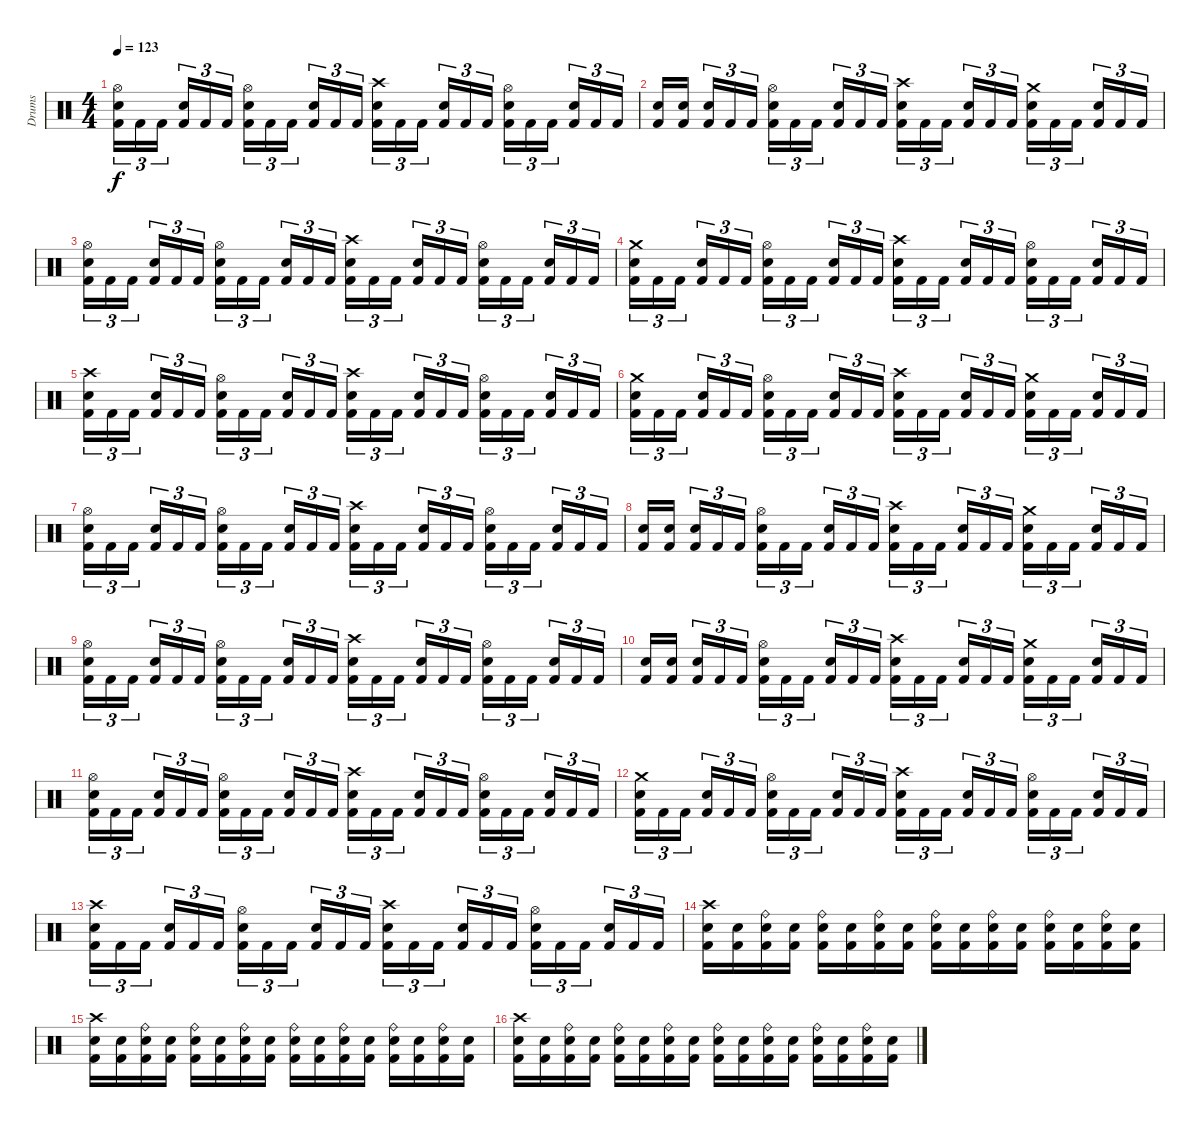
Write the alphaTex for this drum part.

\track ("Drums" "Drums") {instrument percussion}
\staff {score}
\articulation defaults
\ts (4 4)
\tempo 123
\clef neutral
\ks c
("Hi-Hat (open)" "Snare (hit) 2" "Kick (hit) 2").16{tu (3 2) dy f} "Kick (hit) 2".16{tu (3 2)} "Kick (hit) 2".16{tu (3 2) beam splitsecondary} ("Snare (hit) 2" "Kick (hit) 2").16{tu (3 2)} "Kick (hit) 2".16{tu (3 2)} "Kick (hit) 2".16{tu (3 2)} ("Hi-Hat (open)" "Snare (hit) 2" "Kick (hit) 2").16{tu (3 2)} "Kick (hit) 2".16{tu (3 2)} "Kick (hit) 2".16{tu (3 2) beam splitsecondary} ("Snare (hit) 2" "Kick (hit) 2").16{tu (3 2)} "Kick (hit) 2".16{tu (3 2)} "Kick (hit) 2".16{tu (3 2)} ("Crash high (hit)" "Snare (hit) 2" "Kick (hit) 2").16{tu (3 2)} "Kick (hit) 2".16{tu (3 2)} "Kick (hit) 2".16{tu (3 2) beam splitsecondary} ("Snare (hit) 2" "Kick (hit) 2").16{tu (3 2)} "Kick (hit) 2".16{tu (3 2)} "Kick (hit) 2".16{tu (3 2)} ("Hi-Hat (open)" "Snare (hit) 2" "Kick (hit) 2").16{tu (3 2)} "Kick (hit) 2".16{tu (3 2)} "Kick (hit) 2".16{tu (3 2) beam splitsecondary} ("Snare (hit) 2" "Kick (hit) 2").16{tu (3 2)} "Kick (hit) 2".16{tu (3 2)} "Kick (hit) 2".16{tu (3 2)} |
("Snare (hit) 2" "Kick (hit) 2").16 ("Snare (hit) 2" "Kick (hit) 2").16{beam splitsecondary} ("Snare (hit) 2" "Kick (hit) 2").16{tu (3 2)} "Kick (hit) 2".16{tu (3 2)} "Kick (hit) 2".16{tu (3 2)} ("Hi-Hat (open)" "Snare (hit) 2" "Kick (hit) 2").16{tu (3 2)} "Kick (hit) 2".16{tu (3 2)} "Kick (hit) 2".16{tu (3 2) beam splitsecondary} ("Snare (hit) 2" "Kick (hit) 2").16{tu (3 2)} "Kick (hit) 2".16{tu (3 2)} "Kick (hit) 2".16{tu (3 2)} ("Crash high (hit)" "Snare (hit) 2" "Kick (hit) 2").16{tu (3 2)} "Kick (hit) 2".16{tu (3 2)} "Kick (hit) 2".16{tu (3 2) beam splitsecondary} ("Snare (hit) 2" "Kick (hit) 2").16{tu (3 2)} "Kick (hit) 2".16{tu (3 2)} "Kick (hit) 2".16{tu (3 2)} ("Crash medium (hit)" "Snare (hit) 2" "Kick (hit) 2").16{tu (3 2)} "Kick (hit) 2".16{tu (3 2)} "Kick (hit) 2".16{tu (3 2) beam splitsecondary} ("Snare (hit) 2" "Kick (hit) 2").16{tu (3 2)} "Kick (hit) 2".16{tu (3 2)} "Kick (hit) 2".16{tu (3 2)} |
("Hi-Hat (open)" "Snare (hit) 2" "Kick (hit) 2").16{tu (3 2)} "Kick (hit) 2".16{tu (3 2)} "Kick (hit) 2".16{tu (3 2) beam splitsecondary} ("Snare (hit) 2" "Kick (hit) 2").16{tu (3 2)} "Kick (hit) 2".16{tu (3 2)} "Kick (hit) 2".16{tu (3 2)} ("Hi-Hat (open)" "Snare (hit) 2" "Kick (hit) 2").16{tu (3 2)} "Kick (hit) 2".16{tu (3 2)} "Kick (hit) 2".16{tu (3 2) beam splitsecondary} ("Snare (hit) 2" "Kick (hit) 2").16{tu (3 2)} "Kick (hit) 2".16{tu (3 2)} "Kick (hit) 2".16{tu (3 2)} ("Crash high (hit)" "Snare (hit) 2" "Kick (hit) 2").16{tu (3 2)} "Kick (hit) 2".16{tu (3 2)} "Kick (hit) 2".16{tu (3 2) beam splitsecondary} ("Snare (hit) 2" "Kick (hit) 2").16{tu (3 2)} "Kick (hit) 2".16{tu (3 2)} "Kick (hit) 2".16{tu (3 2)} ("Hi-Hat (open)" "Snare (hit) 2" "Kick (hit) 2").16{tu (3 2)} "Kick (hit) 2".16{tu (3 2)} "Kick (hit) 2".16{tu (3 2) beam splitsecondary} ("Snare (hit) 2" "Kick (hit) 2").16{tu (3 2)} "Kick (hit) 2".16{tu (3 2)} "Kick (hit) 2".16{tu (3 2)} |
("Crash medium (hit)" "Snare (hit) 2" "Kick (hit) 2").16{tu (3 2)} "Kick (hit) 2".16{tu (3 2)} "Kick (hit) 2".16{tu (3 2) beam splitsecondary} ("Snare (hit) 2" "Kick (hit) 2").16{tu (3 2)} "Kick (hit) 2".16{tu (3 2)} "Kick (hit) 2".16{tu (3 2)} ("Hi-Hat (open)" "Snare (hit) 2" "Kick (hit) 2").16{tu (3 2)} "Kick (hit) 2".16{tu (3 2)} "Kick (hit) 2".16{tu (3 2) beam splitsecondary} ("Snare (hit) 2" "Kick (hit) 2").16{tu (3 2)} "Kick (hit) 2".16{tu (3 2)} "Kick (hit) 2".16{tu (3 2)} ("Crash high (hit)" "Snare (hit) 2" "Kick (hit) 2").16{tu (3 2)} "Kick (hit) 2".16{tu (3 2)} "Kick (hit) 2".16{tu (3 2) beam splitsecondary} ("Snare (hit) 2" "Kick (hit) 2").16{tu (3 2)} "Kick (hit) 2".16{tu (3 2)} "Kick (hit) 2".16{tu (3 2)} ("Hi-Hat (open)" "Snare (hit) 2" "Kick (hit) 2").16{tu (3 2)} "Kick (hit) 2".16{tu (3 2)} "Kick (hit) 2".16{tu (3 2) beam splitsecondary} ("Snare (hit) 2" "Kick (hit) 2").16{tu (3 2)} "Kick (hit) 2".16{tu (3 2)} "Kick (hit) 2".16{tu (3 2)} |
("Crash high (hit)" "Snare (hit) 2" "Kick (hit) 2").16{tu (3 2)} "Kick (hit) 2".16{tu (3 2)} "Kick (hit) 2".16{tu (3 2) beam splitsecondary} ("Snare (hit) 2" "Kick (hit) 2").16{tu (3 2)} "Kick (hit) 2".16{tu (3 2)} "Kick (hit) 2".16{tu (3 2)} ("Hi-Hat (open)" "Snare (hit) 2" "Kick (hit) 2").16{tu (3 2)} "Kick (hit) 2".16{tu (3 2)} "Kick (hit) 2".16{tu (3 2) beam splitsecondary} ("Snare (hit) 2" "Kick (hit) 2").16{tu (3 2)} "Kick (hit) 2".16{tu (3 2)} "Kick (hit) 2".16{tu (3 2)} ("Crash high (hit)" "Snare (hit) 2" "Kick (hit) 2").16{tu (3 2)} "Kick (hit) 2".16{tu (3 2)} "Kick (hit) 2".16{tu (3 2) beam splitsecondary} ("Snare (hit) 2" "Kick (hit) 2").16{tu (3 2)} "Kick (hit) 2".16{tu (3 2)} "Kick (hit) 2".16{tu (3 2)} ("Hi-Hat (open)" "Snare (hit) 2" "Kick (hit) 2").16{tu (3 2)} "Kick (hit) 2".16{tu (3 2)} "Kick (hit) 2".16{tu (3 2) beam splitsecondary} ("Snare (hit) 2" "Kick (hit) 2").16{tu (3 2)} "Kick (hit) 2".16{tu (3 2)} "Kick (hit) 2".16{tu (3 2)} |
("Crash medium (hit)" "Snare (hit) 2" "Kick (hit) 2").16{tu (3 2)} "Kick (hit) 2".16{tu (3 2)} "Kick (hit) 2".16{tu (3 2) beam splitsecondary} ("Snare (hit) 2" "Kick (hit) 2").16{tu (3 2)} "Kick (hit) 2".16{tu (3 2)} "Kick (hit) 2".16{tu (3 2)} ("Hi-Hat (open)" "Snare (hit) 2" "Kick (hit) 2").16{tu (3 2)} "Kick (hit) 2".16{tu (3 2)} "Kick (hit) 2".16{tu (3 2) beam splitsecondary} ("Snare (hit) 2" "Kick (hit) 2").16{tu (3 2)} "Kick (hit) 2".16{tu (3 2)} "Kick (hit) 2".16{tu (3 2)} ("Crash high (hit)" "Snare (hit) 2" "Kick (hit) 2").16{tu (3 2)} "Kick (hit) 2".16{tu (3 2)} "Kick (hit) 2".16{tu (3 2) beam splitsecondary} ("Snare (hit) 2" "Kick (hit) 2").16{tu (3 2)} "Kick (hit) 2".16{tu (3 2)} "Kick (hit) 2".16{tu (3 2)} ("Crash medium (hit)" "Snare (hit) 2" "Kick (hit) 2").16{tu (3 2)} "Kick (hit) 2".16{tu (3 2)} "Kick (hit) 2".16{tu (3 2) beam splitsecondary} ("Snare (hit) 2" "Kick (hit) 2").16{tu (3 2)} "Kick (hit) 2".16{tu (3 2)} "Kick (hit) 2".16{tu (3 2)} |
("Hi-Hat (open)" "Snare (hit) 2" "Kick (hit) 2").16{tu (3 2)} "Kick (hit) 2".16{tu (3 2)} "Kick (hit) 2".16{tu (3 2) beam splitsecondary} ("Snare (hit) 2" "Kick (hit) 2").16{tu (3 2)} "Kick (hit) 2".16{tu (3 2)} "Kick (hit) 2".16{tu (3 2)} ("Hi-Hat (open)" "Snare (hit) 2" "Kick (hit) 2").16{tu (3 2)} "Kick (hit) 2".16{tu (3 2)} "Kick (hit) 2".16{tu (3 2) beam splitsecondary} ("Snare (hit) 2" "Kick (hit) 2").16{tu (3 2)} "Kick (hit) 2".16{tu (3 2)} "Kick (hit) 2".16{tu (3 2)} ("Crash high (hit)" "Snare (hit) 2" "Kick (hit) 2").16{tu (3 2)} "Kick (hit) 2".16{tu (3 2)} "Kick (hit) 2".16{tu (3 2) beam splitsecondary} ("Snare (hit) 2" "Kick (hit) 2").16{tu (3 2)} "Kick (hit) 2".16{tu (3 2)} "Kick (hit) 2".16{tu (3 2)} ("Hi-Hat (open)" "Snare (hit) 2" "Kick (hit) 2").16{tu (3 2)} "Kick (hit) 2".16{tu (3 2)} "Kick (hit) 2".16{tu (3 2) beam splitsecondary} ("Snare (hit) 2" "Kick (hit) 2").16{tu (3 2)} "Kick (hit) 2".16{tu (3 2)} "Kick (hit) 2".16{tu (3 2)} |
("Snare (hit) 2" "Kick (hit) 2").16 ("Snare (hit) 2" "Kick (hit) 2").16{beam splitsecondary} ("Snare (hit) 2" "Kick (hit) 2").16{tu (3 2)} "Kick (hit) 2".16{tu (3 2)} "Kick (hit) 2".16{tu (3 2)} ("Hi-Hat (open)" "Snare (hit) 2" "Kick (hit) 2").16{tu (3 2)} "Kick (hit) 2".16{tu (3 2)} "Kick (hit) 2".16{tu (3 2) beam splitsecondary} ("Snare (hit) 2" "Kick (hit) 2").16{tu (3 2)} "Kick (hit) 2".16{tu (3 2)} "Kick (hit) 2".16{tu (3 2)} ("Crash high (hit)" "Snare (hit) 2" "Kick (hit) 2").16{tu (3 2)} "Kick (hit) 2".16{tu (3 2)} "Kick (hit) 2".16{tu (3 2) beam splitsecondary} ("Snare (hit) 2" "Kick (hit) 2").16{tu (3 2)} "Kick (hit) 2".16{tu (3 2)} "Kick (hit) 2".16{tu (3 2)} ("Crash medium (hit)" "Snare (hit) 2" "Kick (hit) 2").16{tu (3 2)} "Kick (hit) 2".16{tu (3 2)} "Kick (hit) 2".16{tu (3 2) beam splitsecondary} ("Snare (hit) 2" "Kick (hit) 2").16{tu (3 2)} "Kick (hit) 2".16{tu (3 2)} "Kick (hit) 2".16{tu (3 2)} |
("Hi-Hat (open)" "Snare (hit) 2" "Kick (hit) 2").16{tu (3 2)} "Kick (hit) 2".16{tu (3 2)} "Kick (hit) 2".16{tu (3 2) beam splitsecondary} ("Snare (hit) 2" "Kick (hit) 2").16{tu (3 2)} "Kick (hit) 2".16{tu (3 2)} "Kick (hit) 2".16{tu (3 2)} ("Hi-Hat (open)" "Snare (hit) 2" "Kick (hit) 2").16{tu (3 2)} "Kick (hit) 2".16{tu (3 2)} "Kick (hit) 2".16{tu (3 2) beam splitsecondary} ("Snare (hit) 2" "Kick (hit) 2").16{tu (3 2)} "Kick (hit) 2".16{tu (3 2)} "Kick (hit) 2".16{tu (3 2)} ("Crash high (hit)" "Snare (hit) 2" "Kick (hit) 2").16{tu (3 2)} "Kick (hit) 2".16{tu (3 2)} "Kick (hit) 2".16{tu (3 2) beam splitsecondary} ("Snare (hit) 2" "Kick (hit) 2").16{tu (3 2)} "Kick (hit) 2".16{tu (3 2)} "Kick (hit) 2".16{tu (3 2)} ("Hi-Hat (open)" "Snare (hit) 2" "Kick (hit) 2").16{tu (3 2)} "Kick (hit) 2".16{tu (3 2)} "Kick (hit) 2".16{tu (3 2) beam splitsecondary} ("Snare (hit) 2" "Kick (hit) 2").16{tu (3 2)} "Kick (hit) 2".16{tu (3 2)} "Kick (hit) 2".16{tu (3 2)} |
("Snare (hit) 2" "Kick (hit) 2").16 ("Snare (hit) 2" "Kick (hit) 2").16{beam splitsecondary} ("Snare (hit) 2" "Kick (hit) 2").16{tu (3 2)} "Kick (hit) 2".16{tu (3 2)} "Kick (hit) 2".16{tu (3 2)} ("Hi-Hat (open)" "Snare (hit) 2" "Kick (hit) 2").16{tu (3 2)} "Kick (hit) 2".16{tu (3 2)} "Kick (hit) 2".16{tu (3 2) beam splitsecondary} ("Snare (hit) 2" "Kick (hit) 2").16{tu (3 2)} "Kick (hit) 2".16{tu (3 2)} "Kick (hit) 2".16{tu (3 2)} ("Crash high (hit)" "Snare (hit) 2" "Kick (hit) 2").16{tu (3 2)} "Kick (hit) 2".16{tu (3 2)} "Kick (hit) 2".16{tu (3 2) beam splitsecondary} ("Snare (hit) 2" "Kick (hit) 2").16{tu (3 2)} "Kick (hit) 2".16{tu (3 2)} "Kick (hit) 2".16{tu (3 2)} ("Crash medium (hit)" "Snare (hit) 2" "Kick (hit) 2").16{tu (3 2)} "Kick (hit) 2".16{tu (3 2)} "Kick (hit) 2".16{tu (3 2) beam splitsecondary} ("Snare (hit) 2" "Kick (hit) 2").16{tu (3 2)} "Kick (hit) 2".16{tu (3 2)} "Kick (hit) 2".16{tu (3 2)} |
("Hi-Hat (open)" "Snare (hit) 2" "Kick (hit) 2").16{tu (3 2)} "Kick (hit) 2".16{tu (3 2)} "Kick (hit) 2".16{tu (3 2) beam splitsecondary} ("Snare (hit) 2" "Kick (hit) 2").16{tu (3 2)} "Kick (hit) 2".16{tu (3 2)} "Kick (hit) 2".16{tu (3 2)} ("Hi-Hat (open)" "Snare (hit) 2" "Kick (hit) 2").16{tu (3 2)} "Kick (hit) 2".16{tu (3 2)} "Kick (hit) 2".16{tu (3 2) beam splitsecondary} ("Snare (hit) 2" "Kick (hit) 2").16{tu (3 2)} "Kick (hit) 2".16{tu (3 2)} "Kick (hit) 2".16{tu (3 2)} ("Crash high (hit)" "Snare (hit) 2" "Kick (hit) 2").16{tu (3 2)} "Kick (hit) 2".16{tu (3 2)} "Kick (hit) 2".16{tu (3 2) beam splitsecondary} ("Snare (hit) 2" "Kick (hit) 2").16{tu (3 2)} "Kick (hit) 2".16{tu (3 2)} "Kick (hit) 2".16{tu (3 2)} ("Hi-Hat (open)" "Snare (hit) 2" "Kick (hit) 2").16{tu (3 2)} "Kick (hit) 2".16{tu (3 2)} "Kick (hit) 2".16{tu (3 2) beam splitsecondary} ("Snare (hit) 2" "Kick (hit) 2").16{tu (3 2)} "Kick (hit) 2".16{tu (3 2)} "Kick (hit) 2".16{tu (3 2)} |
("Crash medium (hit)" "Snare (hit) 2" "Kick (hit) 2").16{tu (3 2)} "Kick (hit) 2".16{tu (3 2)} "Kick (hit) 2".16{tu (3 2) beam splitsecondary} ("Snare (hit) 2" "Kick (hit) 2").16{tu (3 2)} "Kick (hit) 2".16{tu (3 2)} "Kick (hit) 2".16{tu (3 2)} ("Hi-Hat (open)" "Snare (hit) 2" "Kick (hit) 2").16{tu (3 2)} "Kick (hit) 2".16{tu (3 2)} "Kick (hit) 2".16{tu (3 2) beam splitsecondary} ("Snare (hit) 2" "Kick (hit) 2").16{tu (3 2)} "Kick (hit) 2".16{tu (3 2)} "Kick (hit) 2".16{tu (3 2)} ("Crash high (hit)" "Snare (hit) 2" "Kick (hit) 2").16{tu (3 2)} "Kick (hit) 2".16{tu (3 2)} "Kick (hit) 2".16{tu (3 2) beam splitsecondary} ("Snare (hit) 2" "Kick (hit) 2").16{tu (3 2)} "Kick (hit) 2".16{tu (3 2)} "Kick (hit) 2".16{tu (3 2)} ("Hi-Hat (open)" "Snare (hit) 2" "Kick (hit) 2").16{tu (3 2)} "Kick (hit) 2".16{tu (3 2)} "Kick (hit) 2".16{tu (3 2) beam splitsecondary} ("Snare (hit) 2" "Kick (hit) 2").16{tu (3 2)} "Kick (hit) 2".16{tu (3 2)} "Kick (hit) 2".16{tu (3 2)} |
("Crash high (hit)" "Snare (hit) 2" "Kick (hit) 2").16{tu (3 2)} "Kick (hit) 2".16{tu (3 2)} "Kick (hit) 2".16{tu (3 2) beam splitsecondary} ("Snare (hit) 2" "Kick (hit) 2").16{tu (3 2)} "Kick (hit) 2".16{tu (3 2)} "Kick (hit) 2".16{tu (3 2)} ("Hi-Hat (open)" "Snare (hit) 2" "Kick (hit) 2").16{tu (3 2)} "Kick (hit) 2".16{tu (3 2)} "Kick (hit) 2".16{tu (3 2) beam splitsecondary} ("Snare (hit) 2" "Kick (hit) 2").16{tu (3 2)} "Kick (hit) 2".16{tu (3 2)} "Kick (hit) 2".16{tu (3 2)} ("Crash high (hit)" "Snare (hit) 2" "Kick (hit) 2").16{tu (3 2)} "Kick (hit) 2".16{tu (3 2)} "Kick (hit) 2".16{tu (3 2) beam splitsecondary} ("Snare (hit) 2" "Kick (hit) 2").16{tu (3 2)} "Kick (hit) 2".16{tu (3 2)} "Kick (hit) 2".16{tu (3 2)} ("Hi-Hat (open)" "Snare (hit) 2" "Kick (hit) 2").16{tu (3 2)} "Kick (hit) 2".16{tu (3 2)} "Kick (hit) 2".16{tu (3 2) beam splitsecondary} ("Snare (hit) 2" "Kick (hit) 2").16{tu (3 2)} "Kick (hit) 2".16{tu (3 2)} "Kick (hit) 2".16{tu (3 2)} |
("Crash high (hit)" "Snare (hit) 2" "Kick (hit) 2").16 ("Snare (hit) 2" "Kick (hit) 2").16 ("Ride (bell)" "Snare (hit) 2" "Kick (hit) 2").16 ("Snare (hit) 2" "Kick (hit) 2").16 ("Ride (bell)" "Snare (hit) 2" "Kick (hit) 2").16 ("Snare (hit) 2" "Kick (hit) 2").16 ("Ride (bell)" "Snare (hit) 2" "Kick (hit) 2").16 ("Snare (hit) 2" "Kick (hit) 2").16 ("Ride (bell)" "Snare (hit) 2" "Kick (hit) 2").16 ("Snare (hit) 2" "Kick (hit) 2").16 ("Ride (bell)" "Snare (hit) 2" "Kick (hit) 2").16 ("Snare (hit) 2" "Kick (hit) 2").16 ("Ride (bell)" "Snare (hit) 2" "Kick (hit) 2").16 ("Snare (hit) 2" "Kick (hit) 2").16 ("Ride (bell)" "Snare (hit) 2" "Kick (hit) 2").16 ("Snare (hit) 2" "Kick (hit) 2").16 |
("Crash high (hit)" "Snare (hit) 2" "Kick (hit) 2").16 ("Snare (hit) 2" "Kick (hit) 2").16 ("Ride (bell)" "Snare (hit) 2" "Kick (hit) 2").16 ("Snare (hit) 2" "Kick (hit) 2").16 ("Ride (bell)" "Snare (hit) 2" "Kick (hit) 2").16 ("Snare (hit) 2" "Kick (hit) 2").16 ("Ride (bell)" "Snare (hit) 2" "Kick (hit) 2").16 ("Snare (hit) 2" "Kick (hit) 2").16 ("Ride (bell)" "Snare (hit) 2" "Kick (hit) 2").16 ("Snare (hit) 2" "Kick (hit) 2").16 ("Ride (bell)" "Snare (hit) 2" "Kick (hit) 2").16 ("Snare (hit) 2" "Kick (hit) 2").16 ("Ride (bell)" "Snare (hit) 2" "Kick (hit) 2").16 ("Snare (hit) 2" "Kick (hit) 2").16 ("Ride (bell)" "Snare (hit) 2" "Kick (hit) 2").16 ("Snare (hit) 2" "Kick (hit) 2").16 |
("Crash high (hit)" "Snare (hit) 2" "Kick (hit) 2").16 ("Snare (hit) 2" "Kick (hit) 2").16 ("Ride (bell)" "Snare (hit) 2" "Kick (hit) 2").16 ("Snare (hit) 2" "Kick (hit) 2").16 ("Ride (bell)" "Snare (hit) 2" "Kick (hit) 2").16 ("Snare (hit) 2" "Kick (hit) 2").16 ("Ride (bell)" "Snare (hit) 2" "Kick (hit) 2").16 ("Snare (hit) 2" "Kick (hit) 2").16 ("Ride (bell)" "Snare (hit) 2" "Kick (hit) 2").16 ("Snare (hit) 2" "Kick (hit) 2").16 ("Ride (bell)" "Snare (hit) 2" "Kick (hit) 2").16 ("Snare (hit) 2" "Kick (hit) 2").16 ("Ride (bell)" "Snare (hit) 2" "Kick (hit) 2").16 ("Snare (hit) 2" "Kick (hit) 2").16 ("Ride (bell)" "Snare (hit) 2" "Kick (hit) 2").16 ("Snare (hit) 2" "Kick (hit) 2").16
